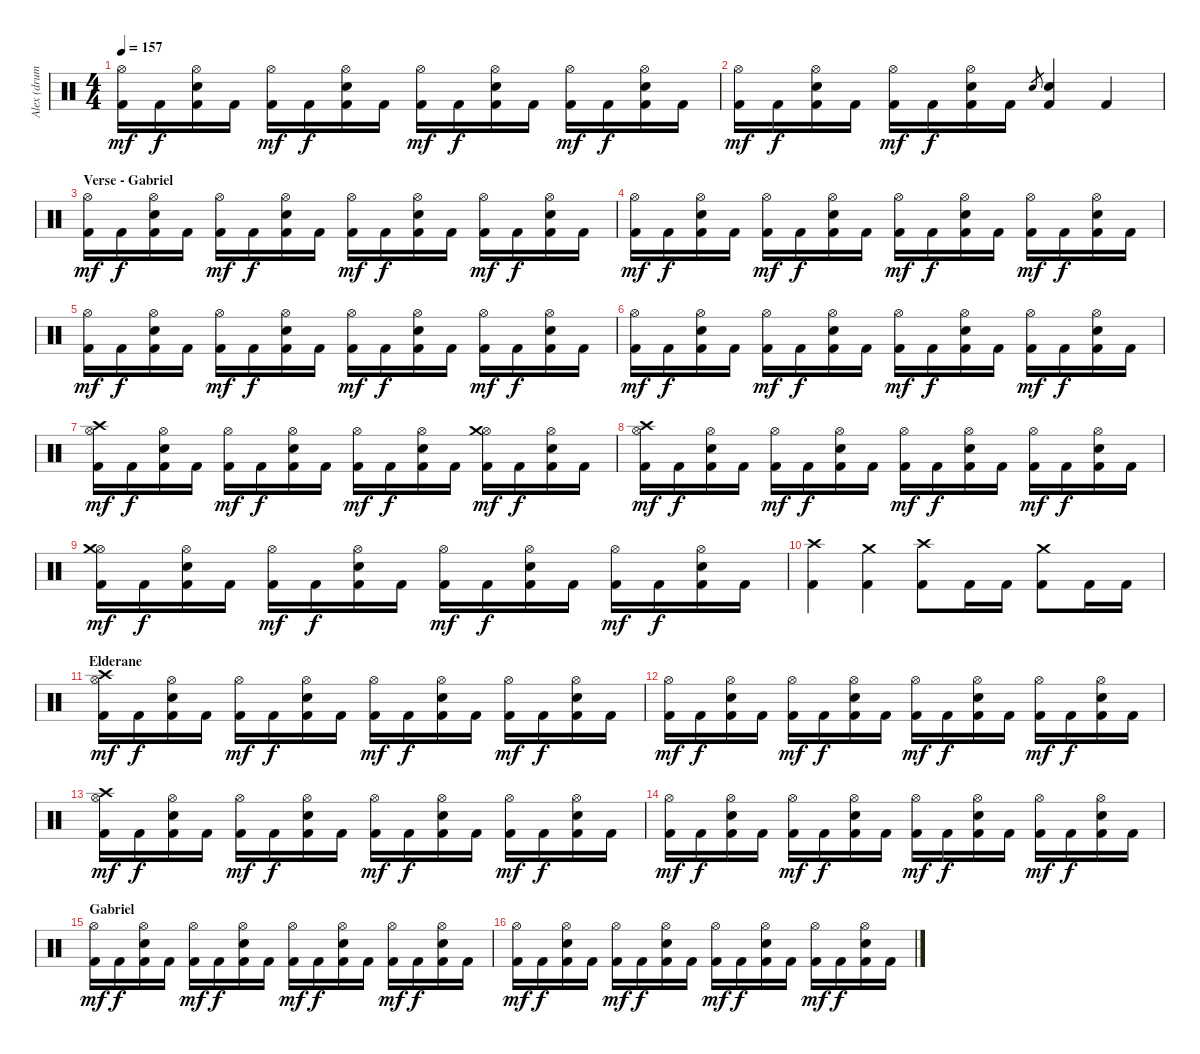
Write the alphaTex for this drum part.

\track ("Alex (drums)" "Alex (drum") {instrument percussion}
\staff {score}
\articulation defaults
\ts (4 4)
\tempo 157
\clef neutral
\ks c
("Hi-Hat (open)" "Kick (hit) 2").16{dy mf} "Kick (hit) 2".16{dy f} ("Hi-Hat (open)" "Snare (hit) 2" "Kick (hit) 2").16 "Kick (hit) 2".16 ("Hi-Hat (open)" "Kick (hit) 2").16{dy mf} "Kick (hit) 2".16{dy f} ("Hi-Hat (open)" "Snare (hit) 2" "Kick (hit) 2").16 "Kick (hit) 2".16 ("Hi-Hat (open)" "Kick (hit) 2").16{dy mf} "Kick (hit) 2".16{dy f} ("Hi-Hat (open)" "Snare (hit) 2" "Kick (hit) 2").16 "Kick (hit) 2".16 ("Hi-Hat (open)" "Kick (hit) 2").16{dy mf} "Kick (hit) 2".16{dy f} ("Hi-Hat (open)" "Snare (hit) 2" "Kick (hit) 2").16 "Kick (hit) 2".16 |
("Hi-Hat (open)" "Kick (hit) 2").16{dy mf} "Kick (hit) 2".16{dy f} ("Hi-Hat (open)" "Snare (hit) 2" "Kick (hit) 2").16 "Kick (hit) 2".16 ("Hi-Hat (open)" "Kick (hit) 2").16{dy mf} "Kick (hit) 2".16{dy f} ("Hi-Hat (open)" "Snare (hit) 2" "Kick (hit) 2").16 "Kick (hit) 2".16 "Snare (hit) 2".8{gr} ("Snare (hit) 2" "Kick (hit) 2").4 "Kick (hit) 2".4 |
\section ("" "Verse - Gabriel")
("Hi-Hat (open)" "Kick (hit) 2").16{dy mf} "Kick (hit) 2".16{dy f} ("Hi-Hat (open)" "Snare (hit) 2" "Kick (hit) 2").16 "Kick (hit) 2".16 ("Hi-Hat (open)" "Kick (hit) 2").16{dy mf} "Kick (hit) 2".16{dy f} ("Hi-Hat (open)" "Snare (hit) 2" "Kick (hit) 2").16 "Kick (hit) 2".16 ("Hi-Hat (open)" "Kick (hit) 2").16{dy mf} "Kick (hit) 2".16{dy f} ("Hi-Hat (open)" "Snare (hit) 2" "Kick (hit) 2").16 "Kick (hit) 2".16 ("Hi-Hat (open)" "Kick (hit) 2").16{dy mf} "Kick (hit) 2".16{dy f} ("Hi-Hat (open)" "Snare (hit) 2" "Kick (hit) 2").16 "Kick (hit) 2".16 |
("Hi-Hat (open)" "Kick (hit) 2").16{dy mf} "Kick (hit) 2".16{dy f} ("Hi-Hat (open)" "Snare (hit) 2" "Kick (hit) 2").16 "Kick (hit) 2".16 ("Hi-Hat (open)" "Kick (hit) 2").16{dy mf} "Kick (hit) 2".16{dy f} ("Hi-Hat (open)" "Snare (hit) 2" "Kick (hit) 2").16 "Kick (hit) 2".16 ("Hi-Hat (open)" "Kick (hit) 2").16{dy mf} "Kick (hit) 2".16{dy f} ("Hi-Hat (open)" "Snare (hit) 2" "Kick (hit) 2").16 "Kick (hit) 2".16 ("Hi-Hat (open)" "Kick (hit) 2").16{dy mf} "Kick (hit) 2".16{dy f} ("Hi-Hat (open)" "Snare (hit) 2" "Kick (hit) 2").16 "Kick (hit) 2".16 |
("Hi-Hat (open)" "Kick (hit) 2").16{dy mf} "Kick (hit) 2".16{dy f} ("Hi-Hat (open)" "Snare (hit) 2" "Kick (hit) 2").16 "Kick (hit) 2".16 ("Hi-Hat (open)" "Kick (hit) 2").16{dy mf} "Kick (hit) 2".16{dy f} ("Hi-Hat (open)" "Snare (hit) 2" "Kick (hit) 2").16 "Kick (hit) 2".16 ("Hi-Hat (open)" "Kick (hit) 2").16{dy mf} "Kick (hit) 2".16{dy f} ("Hi-Hat (open)" "Snare (hit) 2" "Kick (hit) 2").16 "Kick (hit) 2".16 ("Hi-Hat (open)" "Kick (hit) 2").16{dy mf} "Kick (hit) 2".16{dy f} ("Hi-Hat (open)" "Snare (hit) 2" "Kick (hit) 2").16 "Kick (hit) 2".16 |
("Hi-Hat (open)" "Kick (hit) 2").16{dy mf} "Kick (hit) 2".16{dy f} ("Hi-Hat (open)" "Snare (hit) 2" "Kick (hit) 2").16 "Kick (hit) 2".16 ("Hi-Hat (open)" "Kick (hit) 2").16{dy mf} "Kick (hit) 2".16{dy f} ("Hi-Hat (open)" "Snare (hit) 2" "Kick (hit) 2").16 "Kick (hit) 2".16 ("Hi-Hat (open)" "Kick (hit) 2").16{dy mf} "Kick (hit) 2".16{dy f} ("Hi-Hat (open)" "Snare (hit) 2" "Kick (hit) 2").16 "Kick (hit) 2".16 ("Hi-Hat (open)" "Kick (hit) 2").16{dy mf} "Kick (hit) 2".16{dy f} ("Hi-Hat (open)" "Snare (hit) 2" "Kick (hit) 2").16 "Kick (hit) 2".16 |
("Hi-Hat (open)" "Kick (hit) 2" "Crash high (hit)").16{dy mf} "Kick (hit) 2".16{dy f} ("Hi-Hat (open)" "Snare (hit) 2" "Kick (hit) 2").16 "Kick (hit) 2".16 ("Hi-Hat (open)" "Kick (hit) 2").16{dy mf} "Kick (hit) 2".16{dy f} ("Hi-Hat (open)" "Snare (hit) 2" "Kick (hit) 2").16 "Kick (hit) 2".16 ("Hi-Hat (open)" "Kick (hit) 2").16{dy mf} "Kick (hit) 2".16{dy f} ("Hi-Hat (open)" "Snare (hit) 2" "Kick (hit) 2").16 "Kick (hit) 2".16 ("Hi-Hat (open)" "Kick (hit) 2" "Crash medium (hit)").16{dy mf} "Kick (hit) 2".16{dy f} ("Hi-Hat (open)" "Snare (hit) 2" "Kick (hit) 2").16 "Kick (hit) 2".16 |
("Hi-Hat (open)" "Kick (hit) 2" "Crash high (hit)").16{dy mf} "Kick (hit) 2".16{dy f} ("Hi-Hat (open)" "Snare (hit) 2" "Kick (hit) 2").16 "Kick (hit) 2".16 ("Hi-Hat (open)" "Kick (hit) 2").16{dy mf} "Kick (hit) 2".16{dy f} ("Hi-Hat (open)" "Snare (hit) 2" "Kick (hit) 2").16 "Kick (hit) 2".16 ("Hi-Hat (open)" "Kick (hit) 2").16{dy mf} "Kick (hit) 2".16{dy f} ("Hi-Hat (open)" "Snare (hit) 2" "Kick (hit) 2").16 "Kick (hit) 2".16 ("Hi-Hat (open)" "Kick (hit) 2").16{dy mf} "Kick (hit) 2".16{dy f} ("Hi-Hat (open)" "Snare (hit) 2" "Kick (hit) 2").16 "Kick (hit) 2".16 |
("Hi-Hat (open)" "Kick (hit) 2" "Crash medium (hit)").16{dy mf} "Kick (hit) 2".16{dy f} ("Hi-Hat (open)" "Snare (hit) 2" "Kick (hit) 2").16 "Kick (hit) 2".16 ("Hi-Hat (open)" "Kick (hit) 2").16{dy mf} "Kick (hit) 2".16{dy f} ("Hi-Hat (open)" "Snare (hit) 2" "Kick (hit) 2").16 "Kick (hit) 2".16 ("Hi-Hat (open)" "Kick (hit) 2").16{dy mf} "Kick (hit) 2".16{dy f} ("Hi-Hat (open)" "Snare (hit) 2" "Kick (hit) 2").16 "Kick (hit) 2".16 ("Hi-Hat (open)" "Kick (hit) 2").16{dy mf} "Kick (hit) 2".16{dy f} ("Hi-Hat (open)" "Snare (hit) 2" "Kick (hit) 2").16 "Kick (hit) 2".16 |
("Kick (hit) 2" "Crash high (hit)").4 ("Kick (hit) 2" "Crash medium (hit)").4 ("Kick (hit) 2" "Crash high (hit)").8 "Kick (hit) 2".16 "Kick (hit) 2".16 ("Kick (hit) 2" "Crash medium (hit)").8 "Kick (hit) 2".16 "Kick (hit) 2".16 |
\section ("" "Elderane")
("Hi-Hat (open)" "Kick (hit) 2" "Crash high (hit)").16{dy mf} "Kick (hit) 2".16{dy f} ("Hi-Hat (open)" "Snare (hit) 2" "Kick (hit) 2").16 "Kick (hit) 2".16 ("Hi-Hat (open)" "Kick (hit) 2").16{dy mf} "Kick (hit) 2".16{dy f} ("Hi-Hat (open)" "Snare (hit) 2" "Kick (hit) 2").16 "Kick (hit) 2".16 ("Hi-Hat (open)" "Kick (hit) 2").16{dy mf} "Kick (hit) 2".16{dy f} ("Hi-Hat (open)" "Snare (hit) 2" "Kick (hit) 2").16 "Kick (hit) 2".16 ("Hi-Hat (open)" "Kick (hit) 2").16{dy mf} "Kick (hit) 2".16{dy f} ("Hi-Hat (open)" "Snare (hit) 2" "Kick (hit) 2").16 "Kick (hit) 2".16 |
("Hi-Hat (open)" "Kick (hit) 2").16{dy mf} "Kick (hit) 2".16{dy f} ("Hi-Hat (open)" "Snare (hit) 2" "Kick (hit) 2").16 "Kick (hit) 2".16 ("Hi-Hat (open)" "Kick (hit) 2").16{dy mf} "Kick (hit) 2".16{dy f} ("Hi-Hat (open)" "Snare (hit) 2" "Kick (hit) 2").16 "Kick (hit) 2".16 ("Hi-Hat (open)" "Kick (hit) 2").16{dy mf} "Kick (hit) 2".16{dy f} ("Hi-Hat (open)" "Snare (hit) 2" "Kick (hit) 2").16 "Kick (hit) 2".16 ("Hi-Hat (open)" "Kick (hit) 2").16{dy mf} "Kick (hit) 2".16{dy f} ("Hi-Hat (open)" "Snare (hit) 2" "Kick (hit) 2").16 "Kick (hit) 2".16 |
("Hi-Hat (open)" "Kick (hit) 2" "Crash high (hit)").16{dy mf} "Kick (hit) 2".16{dy f} ("Hi-Hat (open)" "Snare (hit) 2" "Kick (hit) 2").16 "Kick (hit) 2".16 ("Hi-Hat (open)" "Kick (hit) 2").16{dy mf} "Kick (hit) 2".16{dy f} ("Hi-Hat (open)" "Snare (hit) 2" "Kick (hit) 2").16 "Kick (hit) 2".16 ("Hi-Hat (open)" "Kick (hit) 2").16{dy mf} "Kick (hit) 2".16{dy f} ("Hi-Hat (open)" "Snare (hit) 2" "Kick (hit) 2").16 "Kick (hit) 2".16 ("Hi-Hat (open)" "Kick (hit) 2").16{dy mf} "Kick (hit) 2".16{dy f} ("Hi-Hat (open)" "Snare (hit) 2" "Kick (hit) 2").16 "Kick (hit) 2".16 |
("Hi-Hat (open)" "Kick (hit) 2").16{dy mf} "Kick (hit) 2".16{dy f} ("Hi-Hat (open)" "Snare (hit) 2" "Kick (hit) 2").16 "Kick (hit) 2".16 ("Hi-Hat (open)" "Kick (hit) 2").16{dy mf} "Kick (hit) 2".16{dy f} ("Hi-Hat (open)" "Snare (hit) 2" "Kick (hit) 2").16 "Kick (hit) 2".16 ("Hi-Hat (open)" "Kick (hit) 2").16{dy mf} "Kick (hit) 2".16{dy f} ("Hi-Hat (open)" "Snare (hit) 2" "Kick (hit) 2").16 "Kick (hit) 2".16 ("Hi-Hat (open)" "Kick (hit) 2").16{dy mf} "Kick (hit) 2".16{dy f} ("Hi-Hat (open)" "Snare (hit) 2" "Kick (hit) 2").16 "Kick (hit) 2".16 |
\section ("" "Gabriel")
("Hi-Hat (open)" "Kick (hit) 2").16{dy mf} "Kick (hit) 2".16{dy f} ("Hi-Hat (open)" "Snare (hit) 2" "Kick (hit) 2").16 "Kick (hit) 2".16 ("Hi-Hat (open)" "Kick (hit) 2").16{dy mf} "Kick (hit) 2".16{dy f} ("Hi-Hat (open)" "Snare (hit) 2" "Kick (hit) 2").16 "Kick (hit) 2".16 ("Hi-Hat (open)" "Kick (hit) 2").16{dy mf} "Kick (hit) 2".16{dy f} ("Hi-Hat (open)" "Snare (hit) 2" "Kick (hit) 2").16 "Kick (hit) 2".16 ("Hi-Hat (open)" "Kick (hit) 2").16{dy mf} "Kick (hit) 2".16{dy f} ("Hi-Hat (open)" "Snare (hit) 2" "Kick (hit) 2").16 "Kick (hit) 2".16 |
("Hi-Hat (open)" "Kick (hit) 2").16{dy mf} "Kick (hit) 2".16{dy f} ("Hi-Hat (open)" "Snare (hit) 2" "Kick (hit) 2").16 "Kick (hit) 2".16 ("Hi-Hat (open)" "Kick (hit) 2").16{dy mf} "Kick (hit) 2".16{dy f} ("Hi-Hat (open)" "Snare (hit) 2" "Kick (hit) 2").16 "Kick (hit) 2".16 ("Hi-Hat (open)" "Kick (hit) 2").16{dy mf} "Kick (hit) 2".16{dy f} ("Hi-Hat (open)" "Snare (hit) 2" "Kick (hit) 2").16 "Kick (hit) 2".16 ("Hi-Hat (open)" "Kick (hit) 2").16{dy mf} "Kick (hit) 2".16{dy f} ("Hi-Hat (open)" "Snare (hit) 2" "Kick (hit) 2").16 "Kick (hit) 2".16
